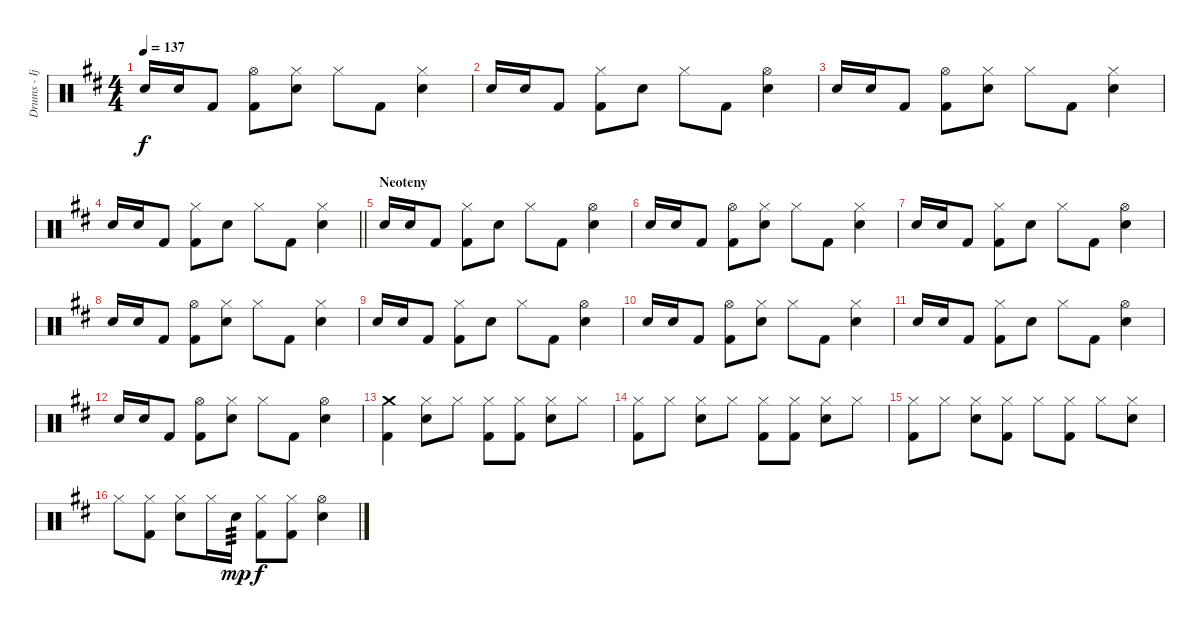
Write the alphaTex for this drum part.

\track ("Drums - Ijichi" "Drums - Ij") {instrument percussion}
\staff {score}
\articulation defaults
\ts (4 4)
\tempo 137
\clef neutral
\ks d "Electric Snare (hit)".16{dy f} "Electric Snare (hit)".16 "Kick (hit) 2".8
("Hi-Hat (open)" "Kick (hit) 2").8 ("Hi-Hat (closed)" "Electric Snare (hit)").8 "Hi-Hat (closed)".8 "Kick (hit) 2".8 ("Hi-Hat (closed)" "Electric Snare (hit)").4 |
"Electric Snare (hit)".16 "Electric Snare (hit)".16 "Kick (hit) 2".8 ("Hi-Hat (closed)" "Kick (hit) 2").8 "Electric Snare (hit)".8 "Hi-Hat (closed)".8 "Kick (hit) 2".8 ("Hi-Hat (open)" "Electric Snare (hit)").4 |
"Electric Snare (hit)".16 "Electric Snare (hit)".16 "Kick (hit) 2".8 ("Hi-Hat (open)" "Kick (hit) 2").8 ("Hi-Hat (closed)" "Electric Snare (hit)").8 "Hi-Hat (closed)".8 "Kick (hit) 2".8 ("Hi-Hat (closed)" "Electric Snare (hit)").4 |
\barLineRight lightlight "Electric Snare (hit)".16 "Electric Snare (hit)".16 "Kick (hit) 2".8
("Hi-Hat (closed)" "Kick (hit) 2").8 "Electric Snare (hit)".8 "Hi-Hat (closed)".8 "Kick (hit) 2".8 ("Hi-Hat (closed)" "Electric Snare (hit)").4 |
\section ("" "Neoteny")
"Electric Snare (hit)".16 "Electric Snare (hit)".16 "Kick (hit) 2".8 ("Hi-Hat (closed)" "Kick (hit) 2").8 "Electric Snare (hit)".8 "Hi-Hat (closed)".8 "Kick (hit) 2".8 ("Hi-Hat (open)" "Electric Snare (hit)").4 |
"Electric Snare (hit)".16 "Electric Snare (hit)".16 "Kick (hit) 2".8 ("Hi-Hat (open)" "Kick (hit) 2").8 ("Hi-Hat (closed)" "Electric Snare (hit)").8 "Hi-Hat (closed)".8 "Kick (hit) 2".8 ("Hi-Hat (closed)" "Electric Snare (hit)").4 |
"Electric Snare (hit)".16 "Electric Snare (hit)".16 "Kick (hit) 2".8 ("Hi-Hat (closed)" "Kick (hit) 2").8 "Electric Snare (hit)".8 "Hi-Hat (closed)".8 "Kick (hit) 2".8 ("Hi-Hat (open)" "Electric Snare (hit)").4 |
"Electric Snare (hit)".16 "Electric Snare (hit)".16 "Kick (hit) 2".8 ("Hi-Hat (open)" "Kick (hit) 2").8 ("Hi-Hat (closed)" "Electric Snare (hit)").8 "Hi-Hat (closed)".8 "Kick (hit) 2".8 ("Hi-Hat (closed)" "Electric Snare (hit)").4 |
"Electric Snare (hit)".16 "Electric Snare (hit)".16 "Kick (hit) 2".8 ("Hi-Hat (closed)" "Kick (hit) 2").8 "Electric Snare (hit)".8 "Hi-Hat (closed)".8 "Kick (hit) 2".8 ("Hi-Hat (open)" "Electric Snare (hit)").4 |
"Electric Snare (hit)".16 "Electric Snare (hit)".16 "Kick (hit) 2".8 ("Hi-Hat (open)" "Kick (hit) 2").8 ("Hi-Hat (closed)" "Electric Snare (hit)").8 "Hi-Hat (closed)".8 "Kick (hit) 2".8 ("Hi-Hat (closed)" "Electric Snare (hit)").4 |
"Electric Snare (hit)".16 "Electric Snare (hit)".16 "Kick (hit) 2".8 ("Hi-Hat (closed)" "Kick (hit) 2").8 "Electric Snare (hit)".8 "Hi-Hat (closed)".8 "Kick (hit) 2".8 ("Hi-Hat (open)" "Electric Snare (hit)").4 |
"Electric Snare (hit)".16 "Electric Snare (hit)".16 "Kick (hit) 2".8 ("Hi-Hat (open)" "Kick (hit) 2").8 ("Hi-Hat (closed)" "Electric Snare (hit)").8 "Hi-Hat (closed)".8 "Kick (hit) 2".8 ("Hi-Hat (open)" "Electric Snare (hit)").4 |
("Crash medium (hit)" "Kick (hit) 2").4 ("Hi-Hat (closed)" "Electric Snare (hit)").8 "Hi-Hat (closed)".8 ("Hi-Hat (closed)" "Kick (hit) 2").8 ("Hi-Hat (closed)" "Kick (hit) 2").8 ("Hi-Hat (closed)" "Electric Snare (hit)").8 "Hi-Hat (closed)".8 |
("Hi-Hat (closed)" "Kick (hit) 2").8 "Hi-Hat (closed)".8 ("Hi-Hat (closed)" "Electric Snare (hit)").8 "Hi-Hat (closed)".8 ("Hi-Hat (closed)" "Kick (hit) 2").8 ("Hi-Hat (closed)" "Kick (hit) 2").8 ("Hi-Hat (closed)" "Electric Snare (hit)").8 "Hi-Hat (closed)".8 |
("Hi-Hat (closed)" "Kick (hit) 2").8 "Hi-Hat (closed)".8 ("Hi-Hat (closed)" "Electric Snare (hit)").8 ("Hi-Hat (closed)" "Kick (hit) 2").8 "Hi-Hat (closed)".8 ("Hi-Hat (closed)" "Kick (hit) 2").8 "Hi-Hat (closed)".8 ("Hi-Hat (closed)" "Electric Snare (hit)").8 |
"Hi-Hat (closed)".8 ("Hi-Hat (closed)" "Kick (hit) 2").8 ("Hi-Hat (closed)" "Electric Snare (hit)").8 "Hi-Hat (closed)".16 "Electric Snare (hit)".16{tp 3 dy mp} ("Hi-Hat (closed)" "Kick (hit) 2").8{dy f} ("Hi-Hat (closed)" "Kick (hit) 2").8 ("Hi-Hat (open)" "Electric Snare (hit)").4
